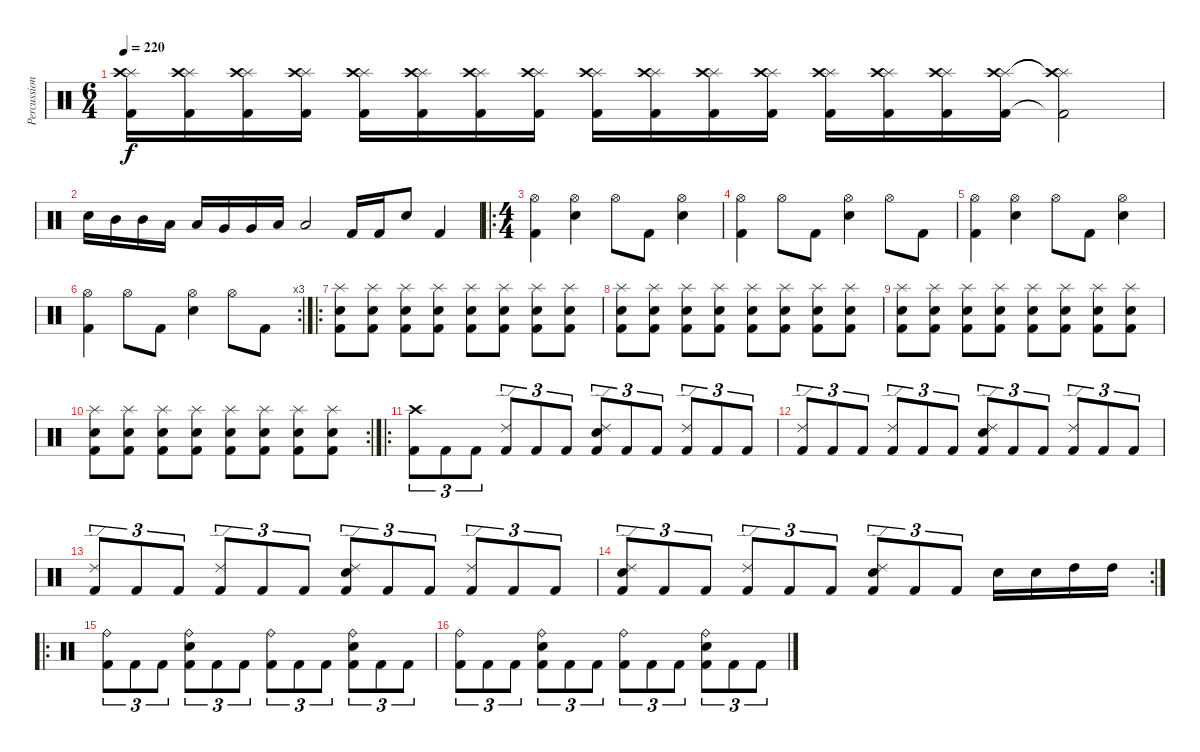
\track ("Percussions" "Percussion") {instrument percussion}
\staff {score}
\articulation defaults
\ts (6 4)
\tempo 220
\clef neutral
\ks c
("Splash (hit)" "Crash high (hit)" "Kick (hit) 2").16{dy f} ("Splash (hit)" "Crash high (hit)" "Kick (hit) 2").16 ("Splash (hit)" "Crash high (hit)" "Kick (hit) 2").16 ("Splash (hit)" "Crash high (hit)" "Kick (hit) 2").16 ("Splash (hit)" "Crash high (hit)" "Kick (hit) 2").16 ("Splash (hit)" "Crash high (hit)" "Kick (hit) 2").16 ("Splash (hit)" "Crash high (hit)" "Kick (hit) 2").16 ("Splash (hit)" "Crash high (hit)" "Kick (hit) 2").16 ("Splash (hit)" "Crash high (hit)" "Kick (hit) 2").16 ("Splash (hit)" "Crash high (hit)" "Kick (hit) 2").16 ("Splash (hit)" "Crash high (hit)" "Kick (hit) 2").16 ("Splash (hit)" "Crash high (hit)" "Kick (hit) 2").16 ("Splash (hit)" "Crash high (hit)" "Kick (hit) 2").16 ("Splash (hit)" "Crash high (hit)" "Kick (hit) 2").16 ("Splash (hit)" "Crash high (hit)" "Kick (hit) 2").16 ("Splash (hit)" "Crash high (hit)" "Kick (hit) 2").16 ("Splash (hit)"{t} "Crash high (hit)"{t} "Kick (hit) 2"{t}).2 |
"Snare (hit) 2".16 "Mid Tom (hit)".16 "Mid Tom (hit)".16 "Low Tom (hit)".16 "Low Tom (hit)".16 "Very Low Tom (hit)".16 "Very Low Tom (hit)".16 "Low Floor Tom (hit)".16 "Low Floor Tom (hit)".2 "Kick (hit) 2".16 "Kick (hit) 2".16 "Snare (hit) 2".8 "Kick (hit) 2".4 |
\ro
\ts (4 4)
("Hi-Hat (open)" "Kick (hit) 2").4 ("Hi-Hat (open)" "Snare (hit) 2").4 "Hi-Hat (open)".8 "Kick (hit) 2".8 ("Hi-Hat (open)" "Snare (hit) 2").4 |
("Hi-Hat (open)" "Kick (hit) 2").4 "Hi-Hat (open)".8 "Kick (hit) 2".8 ("Hi-Hat (open)" "Snare (hit) 2").4 "Hi-Hat (open)".8 "Kick (hit) 2".8 |
("Hi-Hat (open)" "Kick (hit) 2").4 ("Hi-Hat (open)" "Snare (hit) 2").4 "Hi-Hat (open)".8 "Kick (hit) 2".8 ("Hi-Hat (open)" "Snare (hit) 2").4 |
\rc 3
("Hi-Hat (open)" "Kick (hit) 2").4 "Hi-Hat (open)".8 "Kick (hit) 2".8 ("Hi-Hat (open)" "Snare (hit) 2").4 "Hi-Hat (open)".8 "Kick (hit) 2".8 |
\ro
("Splash (hit)" "Snare (hit) 2" "Kick (hit) 2").8 ("Splash (hit)" "Snare (hit) 2" "Kick (hit) 2").8 ("Splash (hit)" "Snare (hit) 2" "Kick (hit) 2").8 ("Splash (hit)" "Snare (hit) 2" "Kick (hit) 2").8 ("Splash (hit)" "Snare (hit) 2" "Kick (hit) 2").8 ("Splash (hit)" "Snare (hit) 2" "Kick (hit) 2").8 ("Splash (hit)" "Snare (hit) 2" "Kick (hit) 2").8 ("Splash (hit)" "Snare (hit) 2" "Kick (hit) 2").8 |
("Splash (hit)" "Snare (hit) 2" "Kick (hit) 2").8 ("Splash (hit)" "Snare (hit) 2" "Kick (hit) 2").8 ("Splash (hit)" "Snare (hit) 2" "Kick (hit) 2").8 ("Splash (hit)" "Snare (hit) 2" "Kick (hit) 2").8 ("Splash (hit)" "Snare (hit) 2" "Kick (hit) 2").8 ("Splash (hit)" "Snare (hit) 2" "Kick (hit) 2").8 ("Splash (hit)" "Snare (hit) 2" "Kick (hit) 2").8 ("Splash (hit)" "Snare (hit) 2" "Kick (hit) 2").8 |
("Splash (hit)" "Snare (hit) 2" "Kick (hit) 2").8 ("Splash (hit)" "Snare (hit) 2" "Kick (hit) 2").8 ("Splash (hit)" "Snare (hit) 2" "Kick (hit) 2").8 ("Splash (hit)" "Snare (hit) 2" "Kick (hit) 2").8 ("Splash (hit)" "Snare (hit) 2" "Kick (hit) 2").8 ("Splash (hit)" "Snare (hit) 2" "Kick (hit) 2").8 ("Splash (hit)" "Snare (hit) 2" "Kick (hit) 2").8 ("Splash (hit)" "Snare (hit) 2" "Kick (hit) 2").8 |
\rc 2
("Splash (hit)" "Snare (hit) 2" "Kick (hit) 2").8 ("Splash (hit)" "Snare (hit) 2" "Kick (hit) 2").8 ("Splash (hit)" "Snare (hit) 2" "Kick (hit) 2").8 ("Splash (hit)" "Snare (hit) 2" "Kick (hit) 2").8 ("Splash (hit)" "Snare (hit) 2" "Kick (hit) 2").8 ("Splash (hit)" "Snare (hit) 2" "Kick (hit) 2").8 ("Splash (hit)" "Snare (hit) 2" "Kick (hit) 2").8 ("Splash (hit)" "Snare (hit) 2" "Kick (hit) 2").8 |
\ro
("Crash high (hit)" "Kick (hit) 2").8{tu (3 2)} "Kick (hit) 2".8{tu (3 2)} "Kick (hit) 2".8{tu (3 2)} ("Ride (edge) 2" "Kick (hit) 2").8{tu (3 2)} "Kick (hit) 2".8{tu (3 2)} "Kick (hit) 2".8{tu (3 2)} ("Ride (edge) 2" "Snare (hit) 2" "Kick (hit) 2").8{tu (3 2)} "Kick (hit) 2".8{tu (3 2)} "Kick (hit) 2".8{tu (3 2)} ("Ride (edge) 2" "Kick (hit) 2").8{tu (3 2)} "Kick (hit) 2".8{tu (3 2)} "Kick (hit) 2".8{tu (3 2)} |
("Ride (edge) 2" "Kick (hit) 2").8{tu (3 2)} "Kick (hit) 2".8{tu (3 2)} "Kick (hit) 2".8{tu (3 2)} ("Ride (edge) 2" "Kick (hit) 2").8{tu (3 2)} "Kick (hit) 2".8{tu (3 2)} "Kick (hit) 2".8{tu (3 2)} ("Ride (edge) 2" "Snare (hit) 2" "Kick (hit) 2").8{tu (3 2)} "Kick (hit) 2".8{tu (3 2)} "Kick (hit) 2".8{tu (3 2)} ("Ride (edge) 2" "Kick (hit) 2").8{tu (3 2)} "Kick (hit) 2".8{tu (3 2)} "Kick (hit) 2".8{tu (3 2)} |
("Ride (edge) 2" "Kick (hit) 2").8{tu (3 2)} "Kick (hit) 2".8{tu (3 2)} "Kick (hit) 2".8{tu (3 2)} ("Ride (edge) 2" "Kick (hit) 2").8{tu (3 2)} "Kick (hit) 2".8{tu (3 2)} "Kick (hit) 2".8{tu (3 2)} ("Ride (edge) 2" "Snare (hit) 2" "Kick (hit) 2").8{tu (3 2)} "Kick (hit) 2".8{tu (3 2)} "Kick (hit) 2".8{tu (3 2)} ("Ride (edge) 2" "Kick (hit) 2").8{tu (3 2)} "Kick (hit) 2".8{tu (3 2)} "Kick (hit) 2".8{tu (3 2)} |
\rc 2
("Ride (edge) 2" "Snare (hit) 2" "Kick (hit) 2").8{tu (3 2)} "Kick (hit) 2".8{tu (3 2)} "Kick (hit) 2".8{tu (3 2)} ("Ride (edge) 2" "Kick (hit) 2").8{tu (3 2)} "Kick (hit) 2".8{tu (3 2)} "Kick (hit) 2".8{tu (3 2)} ("Ride (edge) 2" "Snare (hit) 2" "Kick (hit) 2").8{tu (3 2)} "Kick (hit) 2".8{tu (3 2)} "Kick (hit) 2".8{tu (3 2)} "Snare (hit) 2".16 "Snare (hit) 2".16 "High Tom (hit)".16 "High Tom (hit)".16 |
\ro
("Ride (bell)" "Kick (hit) 2").8{tu (3 2)} "Kick (hit) 2".8{tu (3 2)} "Kick (hit) 2".8{tu (3 2)} ("Ride (bell)" "Snare (hit) 2" "Kick (hit) 2").8{tu (3 2)} "Kick (hit) 2".8{tu (3 2)} "Kick (hit) 2".8{tu (3 2)} ("Ride (bell)" "Kick (hit) 2").8{tu (3 2)} "Kick (hit) 2".8{tu (3 2)} "Kick (hit) 2".8{tu (3 2)} ("Ride (bell)" "Snare (hit) 2" "Kick (hit) 2").8{tu (3 2)} "Kick (hit) 2".8{tu (3 2)} "Kick (hit) 2".8{tu (3 2)} |
("Ride (bell)" "Kick (hit) 2").8{tu (3 2)} "Kick (hit) 2".8{tu (3 2)} "Kick (hit) 2".8{tu (3 2)} ("Ride (bell)" "Snare (hit) 2" "Kick (hit) 2").8{tu (3 2)} "Kick (hit) 2".8{tu (3 2)} "Kick (hit) 2".8{tu (3 2)} ("Ride (bell)" "Kick (hit) 2").8{tu (3 2)} "Kick (hit) 2".8{tu (3 2)} "Kick (hit) 2".8{tu (3 2)} ("Ride (bell)" "Snare (hit) 2" "Kick (hit) 2").8{tu (3 2)} "Kick (hit) 2".8{tu (3 2)} "Kick (hit) 2".8{tu (3 2)}
